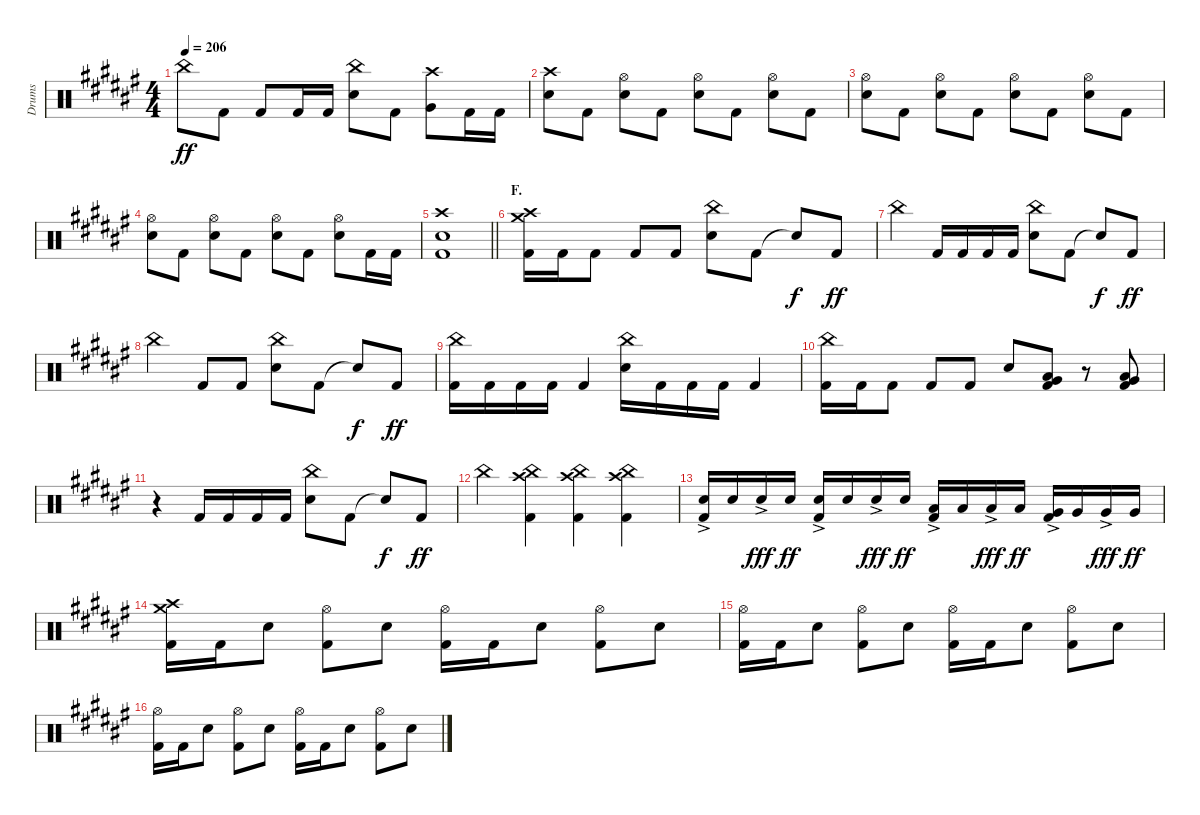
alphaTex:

\track ("Drums" "Drums") {instrument percussion}
\staff {score}
\articulation defaults
\ts (4 4)
\tempo 206
\clef neutral
\ks f# "China (hit)".8{dy ff} "Kick (hit) 2".8 "Kick (hit) 2".8 "Kick (hit) 2".16 "Kick (hit) 2".16
("China (hit)" "Electric Snare (hit)").8 "Kick (hit) 2".8 ("Crash high (hit)" "Very Low Tom (hit)").8 "Kick (hit) 2".16 "Kick (hit) 2".16 |
("Crash high (hit)" "Electric Snare (hit)").8 "Kick (hit) 2".8 ("Hi-Hat (open)" "Electric Snare (hit)").8 "Kick (hit) 2".8 ("Hi-Hat (open)" "Electric Snare (hit)").8 "Kick (hit) 2".8 ("Hi-Hat (open)" "Electric Snare (hit)").8 "Kick (hit) 2".8 |
("Hi-Hat (open)" "Electric Snare (hit)").8 "Kick (hit) 2".8 ("Hi-Hat (open)" "Electric Snare (hit)").8 "Kick (hit) 2".8 ("Hi-Hat (open)" "Electric Snare (hit)").8 "Kick (hit) 2".8 ("Hi-Hat (open)" "Electric Snare (hit)").8 "Kick (hit) 2".8 |
("Hi-Hat (open)" "Electric Snare (hit)").8 "Kick (hit) 2".8 ("Hi-Hat (open)" "Electric Snare (hit)").8 "Kick (hit) 2".8 ("Hi-Hat (open)" "Electric Snare (hit)").8 "Kick (hit) 2".8 ("Hi-Hat (open)" "Electric Snare (hit)").8 "Kick (hit) 2".16 "Kick (hit) 2".16 |
\barLineRight lightlight
("Crash high (hit)" "Electric Snare (hit)" "Kick (hit) 2").1 |
\section ("" "F.")
("Crash medium (hit)" "Crash high (hit)" "Kick (hit) 2").16 "Kick (hit) 2".16 "Kick (hit) 2".8 "Kick (hit) 2".8 "Kick (hit) 2".8 ("China (hit)" "Electric Snare (hit)").8 "Kick (hit) 2".8 "Snare (hit)"{t}.8{dy f} "Kick (hit) 2".8{dy ff} |
"China (hit)".4 "Kick (hit) 2".16 "Kick (hit) 2".16 "Kick (hit) 2".16 "Kick (hit) 2".16 ("China (hit)" "Electric Snare (hit)").8 "Kick (hit) 2".8 "Snare (hit)"{t}.8{dy f} "Kick (hit) 2".8{dy ff} |
"China (hit)".4 "Kick (hit) 2".8 "Kick (hit) 2".8 ("China (hit)" "Electric Snare (hit)").8 "Kick (hit) 2".8 "Snare (hit)"{t}.8{dy f} "Kick (hit) 2".8{dy ff} |
("China (hit)" "Kick (hit) 2").16 "Kick (hit) 2".16 "Kick (hit) 2".16 "Kick (hit) 2".16 "Kick (hit) 2".4 ("China (hit)" "Electric Snare (hit)").16 "Kick (hit) 2".16 "Kick (hit) 2".16 "Kick (hit) 2".16 "Kick (hit) 2".4 |
("China (hit)" "Kick (hit) 2").16 "Kick (hit) 2".16 "Kick (hit) 2".8 "Kick (hit) 2".8 "Kick (hit) 2".8 "Electric Snare (hit)".8 ("Very Low Tom (hit)" "Low Floor Tom (hit)" "Kick (hit) 2").8 r.8 ("Very Low Tom (hit)" "Low Floor Tom (hit)" "Kick (hit) 2").8 |
r.4 "Kick (hit) 2".16 "Kick (hit) 2".16 "Kick (hit) 2".16 "Kick (hit) 2".16 ("China (hit)" "Electric Snare (hit)").8 "Kick (hit) 2".8 "Snare (hit)"{t}.8{dy f} "Kick (hit) 2".8{dy ff} |
"China (hit)".4 ("Crash high (hit)" "China (hit)" "Kick (hit) 2").4 ("Crash high (hit)" "China (hit)" "Kick (hit) 2").4 ("Crash high (hit)" "China (hit)" "Kick (hit) 2").4 |
("Electric Snare (hit)"{ac} "Kick (hit) 2").16 "Electric Snare (hit)".16 "Electric Snare (hit)"{ac}.16{dy fff} "Electric Snare (hit)".16{dy ff} ("Electric Snare (hit)"{ac} "Kick (hit) 2").16 "Electric Snare (hit)".16 "Electric Snare (hit)"{ac}.16{dy fff} "Electric Snare (hit)".16{dy ff} ("Low Tom (hit)"{ac} "Kick (hit) 2").16 "Low Tom (hit)".16 "Low Tom (hit)"{ac}.16{dy fff} "Low Tom (hit)".16{dy ff} ("Very Low Tom (hit)"{ac} "Kick (hit) 2").16 "Very Low Tom (hit)".16 "Very Low Tom (hit)"{ac}.16{dy fff} "Very Low Tom (hit)".16{dy ff} |
("Crash medium (hit)" "Crash high (hit)" "Kick (hit) 2").16 "Kick (hit) 2".16 "Electric Snare (hit)".8 ("Hi-Hat (open)" "Kick (hit) 2").8 "Electric Snare (hit)".8 ("Hi-Hat (open)" "Kick (hit) 2").16 "Kick (hit) 2".16 "Electric Snare (hit)".8 ("Hi-Hat (open)" "Kick (hit) 2").8 "Electric Snare (hit)".8 |
("Hi-Hat (open)" "Kick (hit) 2").16 "Kick (hit) 2".16 "Electric Snare (hit)".8 ("Hi-Hat (open)" "Kick (hit) 2").8 "Electric Snare (hit)".8 ("Hi-Hat (open)" "Kick (hit) 2").16 "Kick (hit) 2".16 "Electric Snare (hit)".8 ("Hi-Hat (open)" "Kick (hit) 2").8 "Electric Snare (hit)".8 |
("Hi-Hat (open)" "Kick (hit) 2").16 "Kick (hit) 2".16 "Electric Snare (hit)".8 ("Hi-Hat (open)" "Kick (hit) 2").8 "Electric Snare (hit)".8 ("Hi-Hat (open)" "Kick (hit) 2").16 "Kick (hit) 2".16 "Electric Snare (hit)".8 ("Hi-Hat (open)" "Kick (hit) 2").8 "Electric Snare (hit)".8
